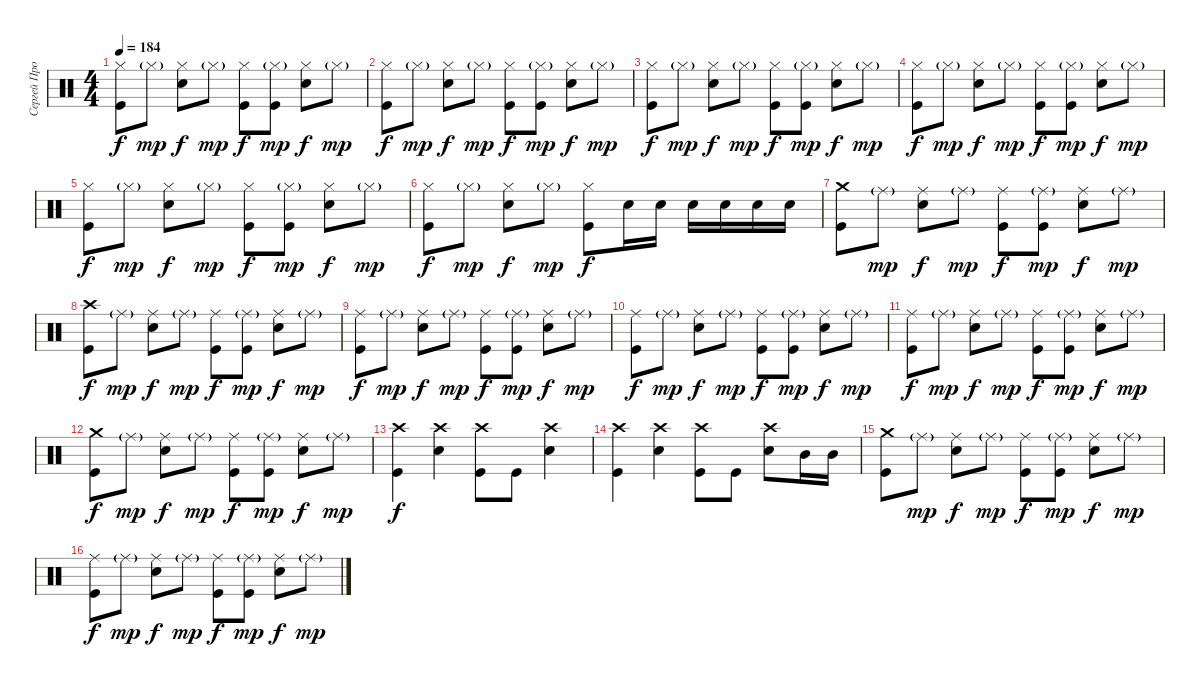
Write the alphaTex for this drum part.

\track ("Сергей Прокофьев" "Сергей Про") {instrument percussion}
\staff {score}
\articulation defaults
\ts (4 4)
\tempo 184
\clef neutral
\ks c
("Hi-Hat (closed)" "Kick (hit)").8{dy f} "Hi-Hat (closed)"{g}.8{dy mp} ("Hi-Hat (closed)" "Electric Snare (hit)").8{dy f} "Hi-Hat (closed)"{g}.8{dy mp} ("Hi-Hat (closed)" "Kick (hit)").8{dy f} ("Hi-Hat (closed)"{g} "Kick (hit)").8{dy mp} ("Hi-Hat (closed)" "Electric Snare (hit)").8{dy f} "Hi-Hat (closed)"{g}.8{dy mp} |
("Hi-Hat (closed)" "Kick (hit)").8{dy f} "Hi-Hat (closed)"{g}.8{dy mp} ("Hi-Hat (closed)" "Electric Snare (hit)").8{dy f} "Hi-Hat (closed)"{g}.8{dy mp} ("Hi-Hat (closed)" "Kick (hit)").8{dy f} ("Hi-Hat (closed)"{g} "Kick (hit)").8{dy mp} ("Hi-Hat (closed)" "Electric Snare (hit)").8{dy f} "Hi-Hat (closed)"{g}.8{dy mp} |
("Hi-Hat (closed)" "Kick (hit)").8{dy f} "Hi-Hat (closed)"{g}.8{dy mp} ("Hi-Hat (closed)" "Electric Snare (hit)").8{dy f} "Hi-Hat (closed)"{g}.8{dy mp} ("Hi-Hat (closed)" "Kick (hit)").8{dy f} ("Hi-Hat (closed)"{g} "Kick (hit)").8{dy mp} ("Hi-Hat (closed)" "Electric Snare (hit)").8{dy f} "Hi-Hat (closed)"{g}.8{dy mp} |
("Hi-Hat (closed)" "Kick (hit)").8{dy f} "Hi-Hat (closed)"{g}.8{dy mp} ("Hi-Hat (closed)" "Electric Snare (hit)").8{dy f} "Hi-Hat (closed)"{g}.8{dy mp} ("Hi-Hat (closed)" "Kick (hit)").8{dy f} ("Hi-Hat (closed)"{g} "Kick (hit)").8{dy mp} ("Hi-Hat (closed)" "Electric Snare (hit)").8{dy f} "Hi-Hat (closed)"{g}.8{dy mp} |
("Hi-Hat (closed)" "Kick (hit)").8{dy f} "Hi-Hat (closed)"{g}.8{dy mp} ("Hi-Hat (closed)" "Electric Snare (hit)").8{dy f} "Hi-Hat (closed)"{g}.8{dy mp} ("Hi-Hat (closed)" "Kick (hit)").8{dy f} ("Hi-Hat (closed)"{g} "Kick (hit)").8{dy mp} ("Hi-Hat (closed)" "Electric Snare (hit)").8{dy f} "Hi-Hat (closed)"{g}.8{dy mp} |
("Hi-Hat (closed)" "Kick (hit)").8{dy f} "Hi-Hat (closed)"{g}.8{dy mp} ("Hi-Hat (closed)" "Electric Snare (hit)").8{dy f} "Hi-Hat (closed)"{g}.8{dy mp} ("Hi-Hat (closed)" "Kick (hit)").8{dy f} "Electric Snare (hit)".16 "Electric Snare (hit)".16 "Electric Snare (hit)".16 "Electric Snare (hit)".16 "Electric Snare (hit)".16 "Electric Snare (hit)".16 |
("Crash medium (hit)" "Kick (hit)").8 "Ride (middle)"{g}.8{dy mp} ("Ride (middle)" "Electric Snare (hit)").8{dy f} "Ride (middle)"{g}.8{dy mp} ("Ride (middle)" "Kick (hit)").8{dy f} ("Ride (middle)"{g} "Kick (hit)").8{dy mp} ("Ride (middle)" "Electric Snare (hit)").8{dy f} "Ride (middle)"{g}.8{dy mp} |
("Crash high (hit)" "Kick (hit)").8{dy f} "Ride (middle)"{g}.8{dy mp} ("Ride (middle)" "Electric Snare (hit)").8{dy f} "Ride (middle)"{g}.8{dy mp} ("Ride (middle)" "Kick (hit)").8{dy f} ("Ride (middle)"{g} "Kick (hit)").8{dy mp} ("Ride (middle)" "Electric Snare (hit)").8{dy f} "Ride (middle)"{g}.8{dy mp} |
("Ride (middle)" "Kick (hit)").8{dy f} "Ride (middle)"{g}.8{dy mp} ("Ride (middle)" "Electric Snare (hit)").8{dy f} "Ride (middle)"{g}.8{dy mp} ("Ride (middle)" "Kick (hit)").8{dy f} ("Ride (middle)"{g} "Kick (hit)").8{dy mp} ("Ride (middle)" "Electric Snare (hit)").8{dy f} "Ride (middle)"{g}.8{dy mp} |
("Ride (middle)" "Kick (hit)").8{dy f} "Ride (middle)"{g}.8{dy mp} ("Ride (middle)" "Electric Snare (hit)").8{dy f} "Ride (middle)"{g}.8{dy mp} ("Ride (middle)" "Kick (hit)").8{dy f} ("Ride (middle)"{g} "Kick (hit)").8{dy mp} ("Ride (middle)" "Electric Snare (hit)").8{dy f} "Ride (middle)"{g}.8{dy mp} |
("Ride (middle)" "Kick (hit)").8{dy f} "Ride (middle)"{g}.8{dy mp} ("Ride (middle)" "Electric Snare (hit)").8{dy f} "Ride (middle)"{g}.8{dy mp} ("Ride (middle)" "Kick (hit)").8{dy f} ("Ride (middle)"{g} "Kick (hit)").8{dy mp} ("Ride (middle)" "Electric Snare (hit)").8{dy f} "Ride (middle)"{g}.8{dy mp} |
("Crash medium (hit)" "Kick (hit)").8{dy f} "Ride (middle)"{g}.8{dy mp} ("Ride (middle)" "Electric Snare (hit)").8{dy f} "Ride (middle)"{g}.8{dy mp} ("Ride (middle)" "Kick (hit)").8{dy f} ("Ride (middle)"{g} "Kick (hit)").8{dy mp} ("Ride (middle)" "Electric Snare (hit)").8{dy f} "Ride (middle)"{g}.8{dy mp} |
("Crash high (hit)" "Kick (hit)").4{dy f} ("Crash high (hit)" "Electric Snare (hit)").4 ("Crash high (hit)" "Kick (hit)").8 "Kick (hit)".8 ("Crash high (hit)" "Electric Snare (hit)").4 |
("Crash high (hit)" "Kick (hit)").4 ("Crash high (hit)" "Electric Snare (hit)").4 ("Crash high (hit)" "Kick (hit)").8 "Kick (hit)".8 ("Crash high (hit)" "Electric Snare (hit)").8 "Mid Tom (hit)".16 "Mid Tom (hit)".16 |
("Crash medium (hit)" "Kick (hit)").8 "Ride (middle)"{g}.8{dy mp} ("Ride (middle)" "Electric Snare (hit)").8{dy f} "Ride (middle)"{g}.8{dy mp} ("Ride (middle)" "Kick (hit)").8{dy f} ("Ride (middle)"{g} "Kick (hit)").8{dy mp} ("Ride (middle)" "Electric Snare (hit)").8{dy f} "Ride (middle)"{g}.8{dy mp} |
("Ride (middle)" "Kick (hit)").8{dy f} "Ride (middle)"{g}.8{dy mp} ("Ride (middle)" "Electric Snare (hit)").8{dy f} "Ride (middle)"{g}.8{dy mp} ("Ride (middle)" "Kick (hit)").8{dy f} ("Ride (middle)"{g} "Kick (hit)").8{dy mp} ("Ride (middle)" "Electric Snare (hit)").8{dy f} "Ride (middle)"{g}.8{dy mp}
